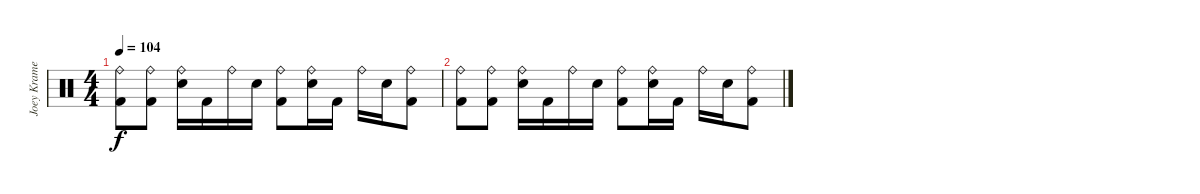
\track ("Joey Kramer" "Joey Krame") {instrument percussion}
\staff {score}
\articulation defaults
\ts (4 4)
\tempo 104
\clef neutral
\ks c
("Ride (bell)" "Kick (hit) 2").8{dy f volume 2} ("Ride (bell)" "Kick (hit) 2").8 ("Ride (bell)" "Snare (hit) 2").16 "Kick (hit) 2".16 "Ride (bell)".16 "Snare (hit) 2".16 ("Ride (bell)" "Kick (hit) 2").8 ("Ride (bell)" "Snare (hit) 2").16 "Kick (hit) 2".16 "Ride (bell)".16 "Snare (hit) 2".16 ("Ride (bell)" "Kick (hit) 2").8 |
("Ride (bell)" "Kick (hit) 2").8{volume 1} ("Ride (bell)" "Kick (hit) 2").8 ("Ride (bell)" "Snare (hit) 2").16 "Kick (hit) 2".16 "Ride (bell)".16 "Snare (hit) 2".16 ("Ride (bell)" "Kick (hit) 2").8{volume 0} ("Ride (bell)" "Snare (hit) 2").16 "Kick (hit) 2".16 "Ride (bell)".16 "Snare (hit) 2".16 ("Ride (bell)" "Kick (hit) 2").8
